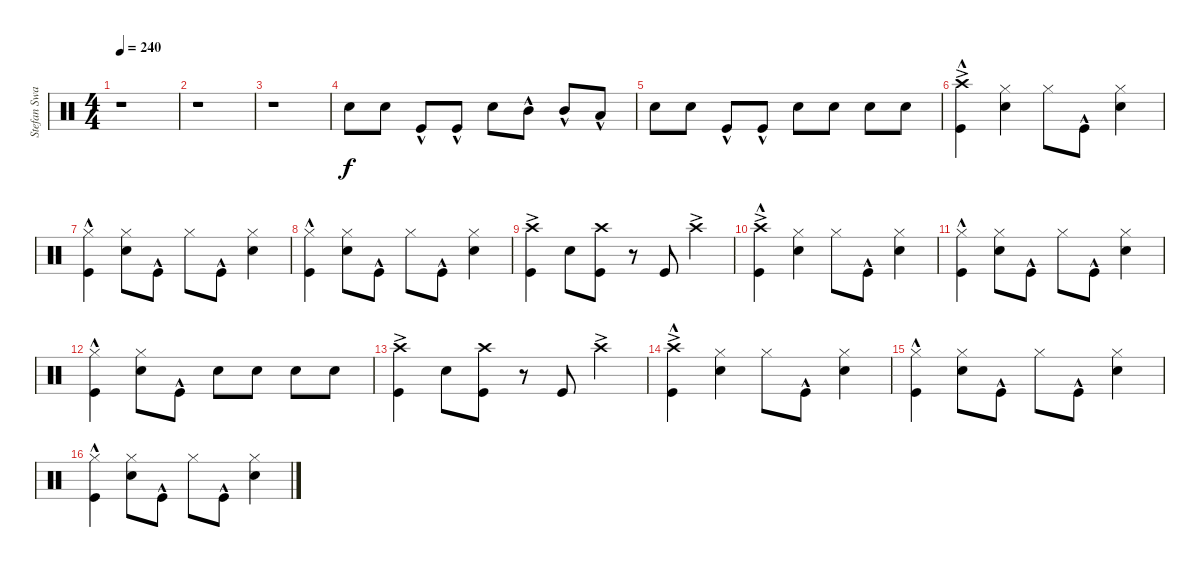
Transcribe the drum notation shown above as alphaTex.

\track ("Stefan Swarztmann" "Stefan Swa") {instrument percussion}
\staff {score}
\articulation defaults
\ts (4 4)
\tempo 240
\clef neutral
\ks c
r.1{dy f} |
r.1 |
r.1 |
"Snare (hit) 2".8 "Snare (hit) 2".8 "Kick (hit)"{hac}.8 "Kick (hit)"{hac}.8 "Snare (hit) 2".8 "Mid Tom (hit)"{hac}.8 "Mid Tom (hit)"{hac}.8 "Low Tom (hit)"{hac}.8 |
"Snare (hit) 2".8 "Snare (hit) 2".8 "Kick (hit)"{hac}.8 "Kick (hit)"{hac}.8 "Snare (hit) 2".8 "Snare (hit) 2".8 "Snare (hit) 2".8 "Snare (hit) 2".8 |
("Crash high (hit)"{ac} "Kick (hit)"{hac}).4 ("Hi-Hat (closed)" "Snare (hit) 2").4 "Hi-Hat (closed)".8 "Kick (hit)"{hac}.8 ("Hi-Hat (closed)" "Snare (hit) 2").4 |
("Hi-Hat (closed)" "Kick (hit)"{hac}).4 ("Hi-Hat (closed)" "Snare (hit) 2").8 "Kick (hit)"{hac}.8 "Hi-Hat (closed)".8 "Kick (hit)"{hac}.8 ("Hi-Hat (closed)" "Snare (hit) 2").4 |
("Hi-Hat (closed)" "Kick (hit)"{hac}).4 ("Hi-Hat (closed)" "Snare (hit) 2").8 "Kick (hit)"{hac}.8 "Hi-Hat (closed)".8 "Kick (hit)"{hac}.8 ("Hi-Hat (closed)" "Snare (hit) 2").4 |
("Crash high (hit)"{ac} "Kick (hit)").4 "Snare (hit) 2".8 ("Crash high (hit)" "Kick (hit)").8 r.8 "Kick (hit)".8 "Crash high (hit)"{ac}.4 |
("Crash high (hit)"{ac} "Kick (hit)"{hac}).4 ("Hi-Hat (closed)" "Snare (hit) 2").4 "Hi-Hat (closed)".8 "Kick (hit)"{hac}.8 ("Hi-Hat (closed)" "Snare (hit) 2").4 |
("Hi-Hat (closed)" "Kick (hit)"{hac}).4 ("Hi-Hat (closed)" "Snare (hit) 2").8 "Kick (hit)"{hac}.8 "Hi-Hat (closed)".8 "Kick (hit)"{hac}.8 ("Hi-Hat (closed)" "Snare (hit) 2").4 |
("Hi-Hat (closed)" "Kick (hit)"{hac}).4 ("Hi-Hat (closed)" "Snare (hit) 2").8 "Kick (hit)"{hac}.8 "Snare (hit) 2".8 "Snare (hit) 2".8 "Snare (hit) 2".8 "Snare (hit) 2".8 |
("Crash high (hit)"{ac} "Kick (hit)").4 "Snare (hit) 2".8 ("Crash high (hit)" "Kick (hit)").8 r.8 "Kick (hit)".8 "Crash high (hit)"{ac}.4 |
("Crash high (hit)"{ac} "Kick (hit)"{hac}).4 ("Hi-Hat (closed)" "Snare (hit) 2").4 "Hi-Hat (closed)".8 "Kick (hit)"{hac}.8 ("Hi-Hat (closed)" "Snare (hit) 2").4 |
("Hi-Hat (closed)" "Kick (hit)"{hac}).4 ("Hi-Hat (closed)" "Snare (hit) 2").8 "Kick (hit)"{hac}.8 "Hi-Hat (closed)".8 "Kick (hit)"{hac}.8 ("Hi-Hat (closed)" "Snare (hit) 2").4 |
("Hi-Hat (closed)" "Kick (hit)"{hac}).4 ("Hi-Hat (closed)" "Snare (hit) 2").8 "Kick (hit)"{hac}.8 "Hi-Hat (closed)".8 "Kick (hit)"{hac}.8 ("Hi-Hat (closed)" "Snare (hit) 2").4
